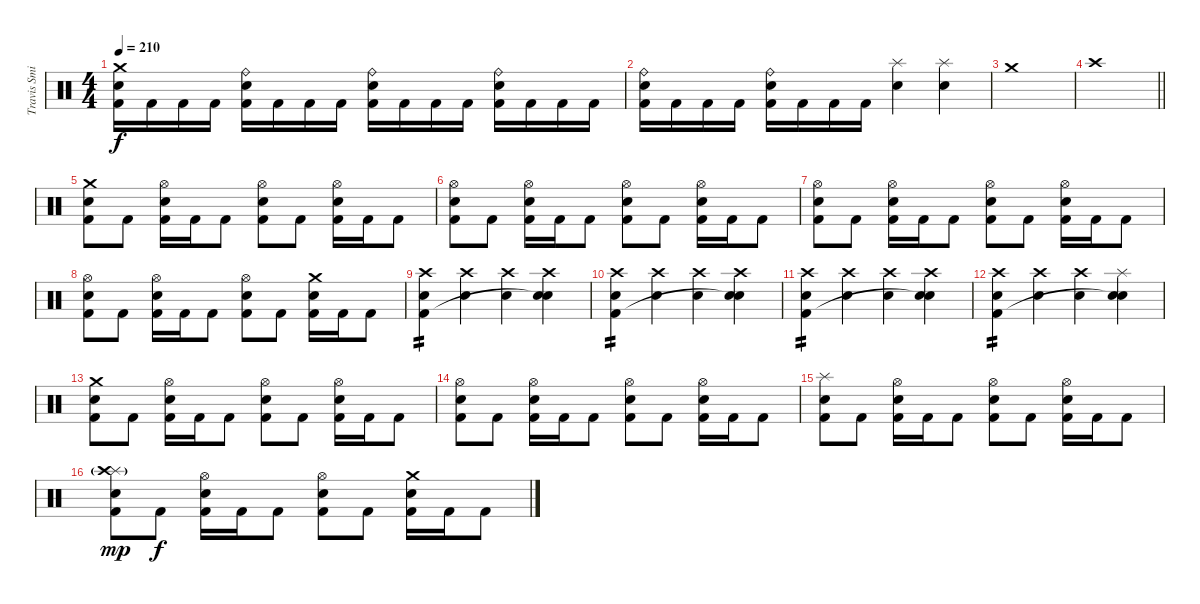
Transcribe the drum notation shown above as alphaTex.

\track ("Travis Smith" "Travis Smi") {instrument percussion}
\staff {score}
\articulation defaults
\ts (4 4)
\tempo 210
\clef neutral
\ks c
("Crash medium (hit)" "Electric Snare (hit)" "Kick (hit) 2").16{dy f} "Kick (hit) 2".16 "Kick (hit) 2".16 "Kick (hit) 2".16 ("Ride (bell)" "Electric Snare (hit)" "Kick (hit) 2").16 "Kick (hit) 2".16 "Kick (hit) 2".16 "Kick (hit) 2".16 ("Ride (bell)" "Electric Snare (hit)" "Kick (hit) 2").16 "Kick (hit) 2".16 "Kick (hit) 2".16 "Kick (hit) 2".16 ("Ride (bell)" "Electric Snare (hit)" "Kick (hit) 2").16 "Kick (hit) 2".16 "Kick (hit) 2".16 "Kick (hit) 2".16 |
("Ride (bell)" "Electric Snare (hit)" "Kick (hit) 2").16 "Kick (hit) 2".16 "Kick (hit) 2".16 "Kick (hit) 2".16 ("Ride (bell)" "Electric Snare (hit)" "Kick (hit) 2").16 "Kick (hit) 2".16 "Kick (hit) 2".16 "Kick (hit) 2".16 ("Splash (hit)" "Electric Snare (hit)").4 ("Splash (hit)" "Electric Snare (hit)").4 |
"Crash medium (hit)".1 |
\barLineRight lightlight "Crash high (hit)".1
|
("Crash medium (hit)" "Electric Snare (hit)" "Kick (hit) 2").8 "Kick (hit) 2".8 ("Hi-Hat (open)" "Electric Snare (hit)" "Kick (hit) 2").16 "Kick (hit) 2".16 "Kick (hit) 2".8 ("Hi-Hat (open)" "Electric Snare (hit)" "Kick (hit) 2").8 "Kick (hit) 2".8 ("Hi-Hat (open)" "Electric Snare (hit)" "Kick (hit) 2").16 "Kick (hit) 2".16 "Kick (hit) 2".8 |
("Hi-Hat (open)" "Electric Snare (hit)" "Kick (hit) 2").8 "Kick (hit) 2".8 ("Hi-Hat (open)" "Electric Snare (hit)" "Kick (hit) 2").16 "Kick (hit) 2".16 "Kick (hit) 2".8 ("Hi-Hat (open)" "Electric Snare (hit)" "Kick (hit) 2").8 "Kick (hit) 2".8 ("Hi-Hat (open)" "Electric Snare (hit)" "Kick (hit) 2").16 "Kick (hit) 2".16 "Kick (hit) 2".8 |
("Hi-Hat (open)" "Electric Snare (hit)" "Kick (hit) 2").8 "Kick (hit) 2".8 ("Hi-Hat (open)" "Electric Snare (hit)" "Kick (hit) 2").16 "Kick (hit) 2".16 "Kick (hit) 2".8 ("Hi-Hat (open)" "Electric Snare (hit)" "Kick (hit) 2").8 "Kick (hit) 2".8 ("Hi-Hat (open)" "Electric Snare (hit)" "Kick (hit) 2").16 "Kick (hit) 2".16 "Kick (hit) 2".8 |
("Hi-Hat (open)" "Electric Snare (hit)" "Kick (hit) 2").8 "Kick (hit) 2".8 ("Hi-Hat (open)" "Electric Snare (hit)" "Kick (hit) 2").16 "Kick (hit) 2".16 "Kick (hit) 2".8 ("Hi-Hat (open)" "Electric Snare (hit)" "Kick (hit) 2").8 "Kick (hit) 2".8 ("Crash medium (hit)" "Electric Snare (hit)" "Kick (hit) 2").16 "Kick (hit) 2".16 "Kick (hit) 2".8 |
("Crash high (hit)" "Electric Snare (hit)" "Kick (hit) 2").4{tp 2} ("Crash high (hit)" "Electric Snare (hit)").4 ("Crash high (hit)" "Electric Snare (hit)").4 ("Crash high (hit)" "Electric Snare (hit)" "Snare (hit)"{t}).4 |
("Crash high (hit)" "Electric Snare (hit)" "Kick (hit) 2").4{tp 2} ("Crash high (hit)" "Electric Snare (hit)").4 ("Crash high (hit)" "Electric Snare (hit)").4 ("Crash high (hit)" "Electric Snare (hit)" "Snare (hit)"{t}).4 |
("Crash high (hit)" "Electric Snare (hit)" "Kick (hit) 2").4{tp 2} ("Crash high (hit)" "Electric Snare (hit)").4 ("Crash high (hit)" "Electric Snare (hit)").4 ("Crash high (hit)" "Electric Snare (hit)" "Snare (hit)"{t}).4 |
("Crash high (hit)" "Electric Snare (hit)" "Kick (hit) 2").4{tp 2} ("Crash high (hit)" "Electric Snare (hit)").4 ("Crash high (hit)" "Electric Snare (hit)").4 ("Splash (hit)" "Electric Snare (hit)" "Snare (hit)"{t}).4 |
("Crash medium (hit)" "Electric Snare (hit)" "Kick (hit) 2").8 "Kick (hit) 2".8 ("Hi-Hat (open)" "Electric Snare (hit)" "Kick (hit) 2").16 "Kick (hit) 2".16 "Kick (hit) 2".8 ("Hi-Hat (open)" "Electric Snare (hit)" "Kick (hit) 2").8 "Kick (hit) 2".8 ("Hi-Hat (open)" "Electric Snare (hit)" "Kick (hit) 2").16 "Kick (hit) 2".16 "Kick (hit) 2".8 |
("Hi-Hat (open)" "Electric Snare (hit)" "Kick (hit) 2").8 "Kick (hit) 2".8 ("Hi-Hat (open)" "Electric Snare (hit)" "Kick (hit) 2").16 "Kick (hit) 2".16 "Kick (hit) 2".8 ("Hi-Hat (open)" "Electric Snare (hit)" "Kick (hit) 2").8 "Kick (hit) 2".8 ("Hi-Hat (open)" "Electric Snare (hit)" "Kick (hit) 2").16 "Kick (hit) 2".16 "Kick (hit) 2".8 |
("Splash (hit)" "Electric Snare (hit)" "Kick (hit) 2").8 "Kick (hit) 2".8 ("Hi-Hat (open)" "Electric Snare (hit)" "Kick (hit) 2").16 "Kick (hit) 2".16 "Kick (hit) 2".8 ("Hi-Hat (open)" "Electric Snare (hit)" "Kick (hit) 2").8 "Kick (hit) 2".8 ("Hi-Hat (open)" "Electric Snare (hit)" "Kick (hit) 2").16 "Kick (hit) 2".16 "Kick (hit) 2".8 |
("Splash (hit)" "Crash high (hit)"{g} "Electric Snare (hit)" "Kick (hit) 2").8{dy mp} "Kick (hit) 2".8{dy f} ("Hi-Hat (open)" "Electric Snare (hit)" "Kick (hit) 2").16 "Kick (hit) 2".16 "Kick (hit) 2".8 ("Hi-Hat (open)" "Electric Snare (hit)" "Kick (hit) 2").8 "Kick (hit) 2".8 ("Crash medium (hit)" "Electric Snare (hit)" "Kick (hit) 2").16 "Kick (hit) 2".16 "Kick (hit) 2".8
